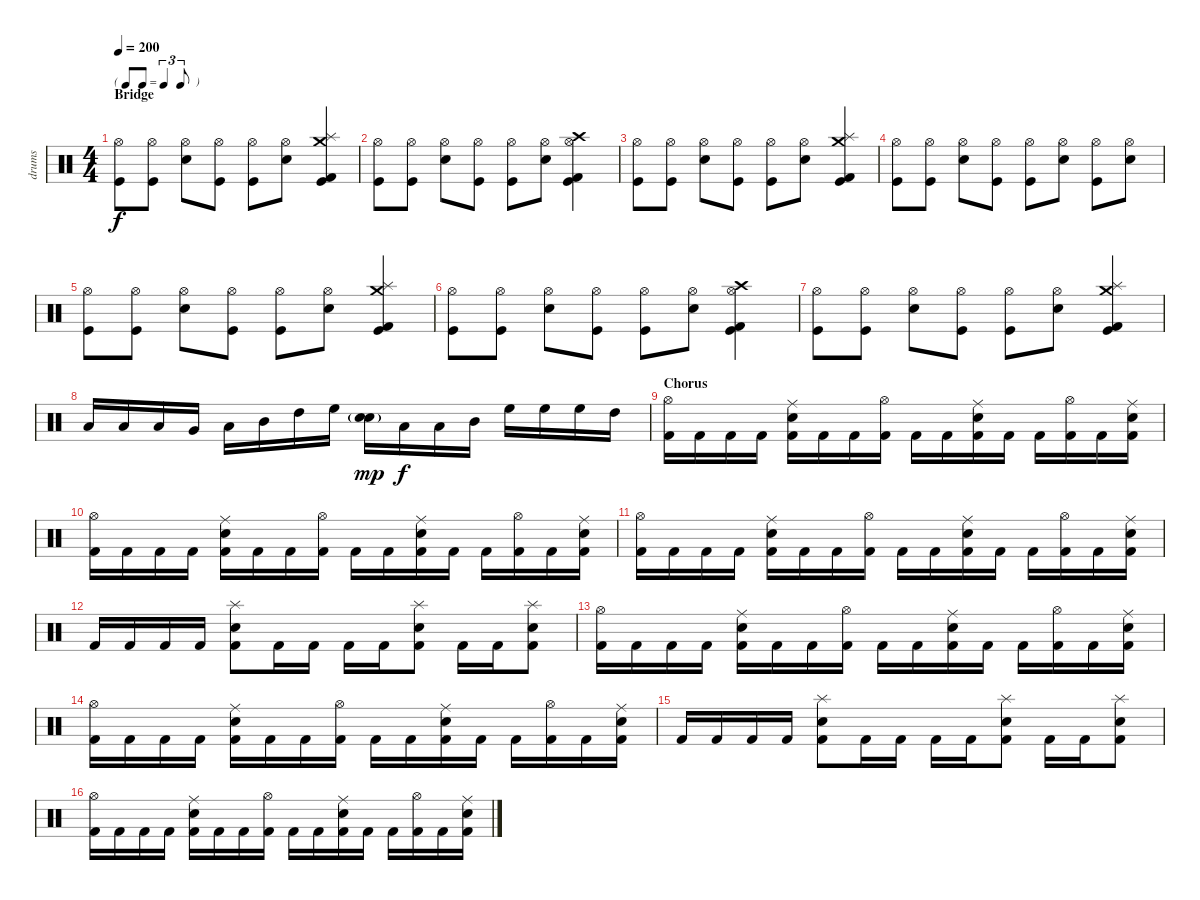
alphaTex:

\track ("drums" "drums") {instrument percussion}
\staff {score}
\articulation defaults
\ts (4 4)
\tf triplet8th
\section ("" "Bridge")
\tempo 200
\clef neutral
\ks c
("Hi-Hat (open)" "Kick (hit)").8{dy f} ("Hi-Hat (open)" "Kick (hit)").8 ("Hi-Hat (open)" "Snare (hit) 2").8 ("Hi-Hat (open)" "Kick (hit)").8 ("Hi-Hat (open)" "Kick (hit)").8 ("Hi-Hat (open)" "Snare (hit) 2").8 ("Crash medium (hit)" "Splash (hit)" "Kick (hit)" "Kick (hit) 2").4 |
("Hi-Hat (open)" "Kick (hit)").8 ("Hi-Hat (open)" "Kick (hit)").8 ("Hi-Hat (open)" "Snare (hit) 2").8 ("Hi-Hat (open)" "Kick (hit)").8 ("Hi-Hat (open)" "Kick (hit)").8 ("Hi-Hat (open)" "Snare (hit) 2").8 ("Crash high (hit)" "Hi-Hat (open)" "Kick (hit)" "Kick (hit) 2").4 |
("Hi-Hat (open)" "Kick (hit)").8 ("Hi-Hat (open)" "Kick (hit)").8 ("Hi-Hat (open)" "Snare (hit) 2").8 ("Hi-Hat (open)" "Kick (hit)").8 ("Hi-Hat (open)" "Kick (hit)").8 ("Hi-Hat (open)" "Snare (hit) 2").8 ("Crash medium (hit)" "Splash (hit)" "Kick (hit)" "Kick (hit) 2").4 |
("Hi-Hat (open)" "Kick (hit)").8 ("Hi-Hat (open)" "Kick (hit)").8 ("Hi-Hat (open)" "Snare (hit) 2").8 ("Hi-Hat (open)" "Kick (hit)").8 ("Hi-Hat (open)" "Kick (hit)").8 ("Hi-Hat (open)" "Snare (hit) 2").8 ("Hi-Hat (open)" "Kick (hit)").8 ("Hi-Hat (open)" "Snare (hit) 2").8 |
("Hi-Hat (open)" "Kick (hit)").8 ("Hi-Hat (open)" "Kick (hit)").8 ("Hi-Hat (open)" "Snare (hit) 2").8 ("Hi-Hat (open)" "Kick (hit)").8 ("Hi-Hat (open)" "Kick (hit)").8 ("Hi-Hat (open)" "Snare (hit) 2").8 ("Crash medium (hit)" "Splash (hit)" "Kick (hit)" "Kick (hit) 2").4 |
("Hi-Hat (open)" "Kick (hit)").8 ("Hi-Hat (open)" "Kick (hit)").8 ("Hi-Hat (open)" "Snare (hit) 2").8 ("Hi-Hat (open)" "Kick (hit)").8 ("Hi-Hat (open)" "Kick (hit)").8 ("Hi-Hat (open)" "Snare (hit) 2").8 ("Crash high (hit)" "Hi-Hat (open)" "Kick (hit)" "Kick (hit) 2").4 |
("Hi-Hat (open)" "Kick (hit)").8 ("Hi-Hat (open)" "Kick (hit)").8 ("Hi-Hat (open)" "Snare (hit) 2").8 ("Hi-Hat (open)" "Kick (hit)").8 ("Hi-Hat (open)" "Kick (hit)").8 ("Hi-Hat (open)" "Snare (hit) 2").8 ("Crash medium (hit)" "Splash (hit)" "Kick (hit)" "Kick (hit) 2").4 |
"Low Floor Tom (hit)".16 "Low Floor Tom (hit)".16 "Low Floor Tom (hit)".16 "Very Low Tom (hit)".16 "Low Tom (hit)".16 "Mid Tom (hit)".16 "High Tom (hit)".16 "High Floor Tom (hit)".16 ("Electric Snare (hit)"{g} "Snare (hit) 2").16{dy mp} "Low Floor Tom (hit)".16{dy f} "Low Tom (hit)".16 "Mid Tom (hit)".16 "High Floor Tom (hit)".16 "High Floor Tom (hit)".16 "High Floor Tom (hit)".16 "High Tom (hit)".16 |
\section ("" "Chorus")
("Kick (hit) 2" "Hi-Hat (open)").16 "Kick (hit) 2".16 "Kick (hit) 2".16 "Kick (hit) 2".16 ("Kick (hit) 2" "Electric Snare (hit)" "Ride (middle)").16 "Kick (hit) 2".16 "Kick (hit) 2".16 ("Kick (hit) 2" "Hi-Hat (open)").16 "Kick (hit) 2".16 "Kick (hit) 2".16 ("Kick (hit) 2" "Electric Snare (hit)" "Ride (middle)").16 "Kick (hit) 2".16 "Kick (hit) 2".16 ("Kick (hit) 2" "Hi-Hat (open)").16 "Kick (hit) 2".16 ("Kick (hit) 2" "Electric Snare (hit)" "Ride (middle)").16 |
("Kick (hit) 2" "Hi-Hat (open)").16 "Kick (hit) 2".16 "Kick (hit) 2".16 "Kick (hit) 2".16 ("Kick (hit) 2" "Electric Snare (hit)" "Ride (middle)").16 "Kick (hit) 2".16 "Kick (hit) 2".16 ("Kick (hit) 2" "Hi-Hat (open)").16 "Kick (hit) 2".16 "Kick (hit) 2".16 ("Kick (hit) 2" "Electric Snare (hit)" "Ride (middle)").16 "Kick (hit) 2".16 "Kick (hit) 2".16 ("Kick (hit) 2" "Hi-Hat (open)").16 "Kick (hit) 2".16 ("Kick (hit) 2" "Electric Snare (hit)" "Ride (middle)").16 |
("Kick (hit) 2" "Hi-Hat (open)").16 "Kick (hit) 2".16 "Kick (hit) 2".16 "Kick (hit) 2".16 ("Kick (hit) 2" "Electric Snare (hit)" "Ride (middle)").16 "Kick (hit) 2".16 "Kick (hit) 2".16 ("Kick (hit) 2" "Hi-Hat (open)").16 "Kick (hit) 2".16 "Kick (hit) 2".16 ("Kick (hit) 2" "Electric Snare (hit)" "Ride (middle)").16 "Kick (hit) 2".16 "Kick (hit) 2".16 ("Kick (hit) 2" "Hi-Hat (open)").16 "Kick (hit) 2".16 ("Kick (hit) 2" "Electric Snare (hit)" "Ride (middle)").16 |
"Kick (hit) 2".16 "Kick (hit) 2".16 "Kick (hit) 2".16 "Kick (hit) 2".16 ("Kick (hit) 2" "Electric Snare (hit)" "Splash (hit)").8 "Kick (hit) 2".16 "Kick (hit) 2".16 "Kick (hit) 2".16 "Kick (hit) 2".16 ("Kick (hit) 2" "Electric Snare (hit)" "Splash (hit)").8 "Kick (hit) 2".16 "Kick (hit) 2".16 ("Kick (hit) 2" "Electric Snare (hit)" "Splash (hit)").8 |
("Kick (hit) 2" "Hi-Hat (open)").16 "Kick (hit) 2".16 "Kick (hit) 2".16 "Kick (hit) 2".16 ("Kick (hit) 2" "Electric Snare (hit)" "Ride (middle)").16 "Kick (hit) 2".16 "Kick (hit) 2".16 ("Kick (hit) 2" "Hi-Hat (open)").16 "Kick (hit) 2".16 "Kick (hit) 2".16 ("Kick (hit) 2" "Electric Snare (hit)" "Ride (middle)").16 "Kick (hit) 2".16 "Kick (hit) 2".16 ("Kick (hit) 2" "Hi-Hat (open)").16 "Kick (hit) 2".16 ("Kick (hit) 2" "Electric Snare (hit)" "Ride (middle)").16 |
("Kick (hit) 2" "Hi-Hat (open)").16 "Kick (hit) 2".16 "Kick (hit) 2".16 "Kick (hit) 2".16 ("Kick (hit) 2" "Electric Snare (hit)" "Ride (middle)").16 "Kick (hit) 2".16 "Kick (hit) 2".16 ("Kick (hit) 2" "Hi-Hat (open)").16 "Kick (hit) 2".16 "Kick (hit) 2".16 ("Kick (hit) 2" "Electric Snare (hit)" "Ride (middle)").16 "Kick (hit) 2".16 "Kick (hit) 2".16 ("Kick (hit) 2" "Hi-Hat (open)").16 "Kick (hit) 2".16 ("Kick (hit) 2" "Electric Snare (hit)" "Ride (middle)").16 |
"Kick (hit) 2".16 "Kick (hit) 2".16 "Kick (hit) 2".16 "Kick (hit) 2".16 ("Kick (hit) 2" "Electric Snare (hit)" "Splash (hit)").8 "Kick (hit) 2".16 "Kick (hit) 2".16 "Kick (hit) 2".16 "Kick (hit) 2".16 ("Kick (hit) 2" "Electric Snare (hit)" "Splash (hit)").8 "Kick (hit) 2".16 "Kick (hit) 2".16 ("Kick (hit) 2" "Electric Snare (hit)" "Splash (hit)").8 |
("Kick (hit) 2" "Hi-Hat (open)").16 "Kick (hit) 2".16 "Kick (hit) 2".16 "Kick (hit) 2".16 ("Kick (hit) 2" "Electric Snare (hit)" "Ride (middle)").16 "Kick (hit) 2".16 "Kick (hit) 2".16 ("Kick (hit) 2" "Hi-Hat (open)").16 "Kick (hit) 2".16 "Kick (hit) 2".16 ("Kick (hit) 2" "Electric Snare (hit)" "Ride (middle)").16 "Kick (hit) 2".16 "Kick (hit) 2".16 ("Kick (hit) 2" "Hi-Hat (open)").16 "Kick (hit) 2".16 ("Kick (hit) 2" "Electric Snare (hit)" "Ride (middle)").16
